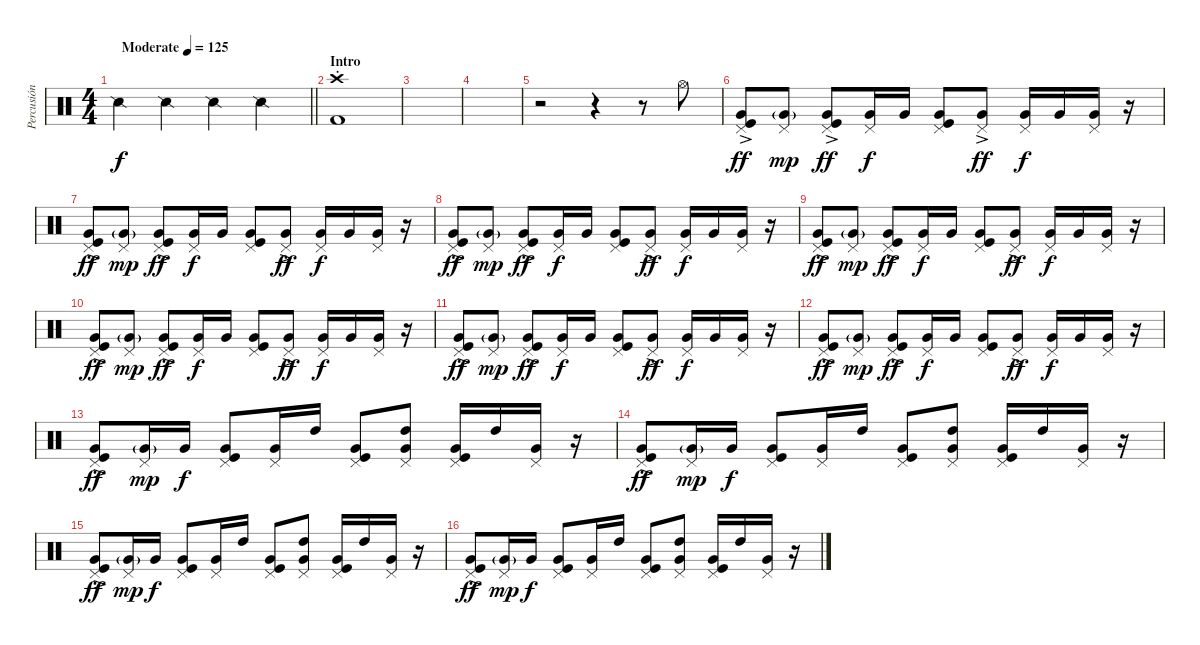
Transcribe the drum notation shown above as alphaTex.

\track ("Percusión" "Percusión") {instrument percussion}
\staff {score}
\articulation defaults
\ts (4 4)
\tempo (125 "Moderate")
\clef neutral
\barLineRight lightlight
\ks c "Snare (side stick) 2".4{dy f} "Snare (side stick) 2".4 "Snare (side stick) 2".4 "Snare (side stick) 2".4
|
\section ("" "Intro")
("Crash high (hit)"{st} "Kick (hit) 2").1 |
|
|
r.2 r.4 r.8 "Hi-Hat (open)".8 |
("Very Low Tom (hit)"{ac} "Kick (hit)" "Pedal Hi-Hat (hit)").8{dy ff} ("Very Low Tom (hit)"{g} "Pedal Hi-Hat (hit)").8{dy mp} ("Very Low Tom (hit)"{ac} "Kick (hit)" "Pedal Hi-Hat (hit)").8{dy ff} ("Very Low Tom (hit)" "Pedal Hi-Hat (hit)").16{dy f} "Very Low Tom (hit)".16 ("Very Low Tom (hit)" "Kick (hit)" "Pedal Hi-Hat (hit)").8 ("Very Low Tom (hit)"{ac} "Pedal Hi-Hat (hit)").8{dy ff} ("Very Low Tom (hit)" "Pedal Hi-Hat (hit)").16{dy f} "Very Low Tom (hit)".16 ("Very Low Tom (hit)" "Pedal Hi-Hat (hit)").16 r.16 |
("Very Low Tom (hit)"{ac} "Kick (hit)" "Pedal Hi-Hat (hit)").8{dy ff} ("Very Low Tom (hit)"{g} "Pedal Hi-Hat (hit)").8{dy mp} ("Very Low Tom (hit)"{ac} "Kick (hit)" "Pedal Hi-Hat (hit)").8{dy ff} ("Very Low Tom (hit)" "Pedal Hi-Hat (hit)").16{dy f} "Very Low Tom (hit)".16 ("Very Low Tom (hit)" "Kick (hit)" "Pedal Hi-Hat (hit)").8 ("Very Low Tom (hit)"{ac} "Pedal Hi-Hat (hit)").8{dy ff} ("Very Low Tom (hit)" "Pedal Hi-Hat (hit)").16{dy f} "Very Low Tom (hit)".16 ("Very Low Tom (hit)" "Pedal Hi-Hat (hit)").16 r.16 |
("Very Low Tom (hit)"{ac} "Kick (hit)" "Pedal Hi-Hat (hit)").8{dy ff} ("Very Low Tom (hit)"{g} "Pedal Hi-Hat (hit)").8{dy mp} ("Very Low Tom (hit)"{ac} "Kick (hit)" "Pedal Hi-Hat (hit)").8{dy ff} ("Very Low Tom (hit)" "Pedal Hi-Hat (hit)").16{dy f} "Very Low Tom (hit)".16 ("Very Low Tom (hit)" "Kick (hit)" "Pedal Hi-Hat (hit)").8 ("Very Low Tom (hit)"{ac} "Pedal Hi-Hat (hit)").8{dy ff} ("Very Low Tom (hit)" "Pedal Hi-Hat (hit)").16{dy f} "Very Low Tom (hit)".16 ("Very Low Tom (hit)" "Pedal Hi-Hat (hit)").16 r.16 |
("Very Low Tom (hit)"{ac} "Kick (hit)" "Pedal Hi-Hat (hit)").8{dy ff} ("Very Low Tom (hit)"{g} "Pedal Hi-Hat (hit)").8{dy mp} ("Very Low Tom (hit)"{ac} "Kick (hit)" "Pedal Hi-Hat (hit)").8{dy ff} ("Very Low Tom (hit)" "Pedal Hi-Hat (hit)").16{dy f} "Very Low Tom (hit)".16 ("Very Low Tom (hit)" "Kick (hit)" "Pedal Hi-Hat (hit)").8 ("Very Low Tom (hit)"{ac} "Pedal Hi-Hat (hit)").8{dy ff} ("Very Low Tom (hit)" "Pedal Hi-Hat (hit)").16{dy f} "Very Low Tom (hit)".16 ("Very Low Tom (hit)" "Pedal Hi-Hat (hit)").16 r.16 |
("Very Low Tom (hit)"{ac} "Kick (hit)" "Pedal Hi-Hat (hit)").8{dy ff} ("Very Low Tom (hit)"{g} "Pedal Hi-Hat (hit)").8{dy mp} ("Very Low Tom (hit)"{ac} "Kick (hit)" "Pedal Hi-Hat (hit)").8{dy ff} ("Very Low Tom (hit)" "Pedal Hi-Hat (hit)").16{dy f} "Very Low Tom (hit)".16 ("Very Low Tom (hit)" "Kick (hit)" "Pedal Hi-Hat (hit)").8 ("Very Low Tom (hit)"{ac} "Pedal Hi-Hat (hit)").8{dy ff} ("Very Low Tom (hit)" "Pedal Hi-Hat (hit)").16{dy f} "Very Low Tom (hit)".16 ("Very Low Tom (hit)" "Pedal Hi-Hat (hit)").16 r.16 |
("Very Low Tom (hit)"{ac} "Kick (hit)" "Pedal Hi-Hat (hit)").8{dy ff} ("Very Low Tom (hit)"{g} "Pedal Hi-Hat (hit)").8{dy mp} ("Very Low Tom (hit)"{ac} "Kick (hit)" "Pedal Hi-Hat (hit)").8{dy ff} ("Very Low Tom (hit)" "Pedal Hi-Hat (hit)").16{dy f} "Very Low Tom (hit)".16 ("Very Low Tom (hit)" "Kick (hit)" "Pedal Hi-Hat (hit)").8 ("Very Low Tom (hit)"{ac} "Pedal Hi-Hat (hit)").8{dy ff} ("Very Low Tom (hit)" "Pedal Hi-Hat (hit)").16{dy f} "Very Low Tom (hit)".16 ("Very Low Tom (hit)" "Pedal Hi-Hat (hit)").16 r.16 |
("Very Low Tom (hit)"{ac} "Kick (hit)" "Pedal Hi-Hat (hit)").8{dy ff} ("Very Low Tom (hit)"{g} "Pedal Hi-Hat (hit)").8{dy mp} ("Very Low Tom (hit)"{ac} "Kick (hit)" "Pedal Hi-Hat (hit)").8{dy ff} ("Very Low Tom (hit)" "Pedal Hi-Hat (hit)").16{dy f} "Very Low Tom (hit)".16 ("Very Low Tom (hit)" "Kick (hit)" "Pedal Hi-Hat (hit)").8 ("Very Low Tom (hit)"{ac} "Pedal Hi-Hat (hit)").8{dy ff} ("Very Low Tom (hit)" "Pedal Hi-Hat (hit)").16{dy f} "Very Low Tom (hit)".16 ("Very Low Tom (hit)" "Pedal Hi-Hat (hit)").16 r.16 |
("Very Low Tom (hit)"{ac} "Pedal Hi-Hat (hit)" "Kick (hit)").8{dy ff} ("Very Low Tom (hit)"{g} "Pedal Hi-Hat (hit)").16{dy mp} "Very Low Tom (hit)".16{dy f} ("Very Low Tom (hit)" "Pedal Hi-Hat (hit)" "Kick (hit)").8 ("Very Low Tom (hit)" "Pedal Hi-Hat (hit)").16 "High Tom (hit)".16 ("Very Low Tom (hit)" "Pedal Hi-Hat (hit)" "Kick (hit)").8 ("Very Low Tom (hit)" "High Tom (hit)" "Pedal Hi-Hat (hit)").8 ("Very Low Tom (hit)" "Pedal Hi-Hat (hit)" "Kick (hit)").16 "High Tom (hit)".16 ("Very Low Tom (hit)" "Pedal Hi-Hat (hit)").16 r.16 |
("Very Low Tom (hit)"{ac} "Pedal Hi-Hat (hit)" "Kick (hit)").8{dy ff} ("Very Low Tom (hit)"{g} "Pedal Hi-Hat (hit)").16{dy mp} "Very Low Tom (hit)".16{dy f} ("Very Low Tom (hit)" "Pedal Hi-Hat (hit)" "Kick (hit)").8 ("Very Low Tom (hit)" "Pedal Hi-Hat (hit)").16 "High Tom (hit)".16 ("Very Low Tom (hit)" "Pedal Hi-Hat (hit)" "Kick (hit)").8 ("Very Low Tom (hit)" "High Tom (hit)" "Pedal Hi-Hat (hit)").8 ("Very Low Tom (hit)" "Pedal Hi-Hat (hit)" "Kick (hit)").16 "High Tom (hit)".16 ("Very Low Tom (hit)" "Pedal Hi-Hat (hit)").16 r.16 |
("Very Low Tom (hit)"{ac} "Pedal Hi-Hat (hit)" "Kick (hit)").8{dy ff} ("Very Low Tom (hit)"{g} "Pedal Hi-Hat (hit)").16{dy mp} "Very Low Tom (hit)".16{dy f} ("Very Low Tom (hit)" "Pedal Hi-Hat (hit)" "Kick (hit)").8 ("Very Low Tom (hit)" "Pedal Hi-Hat (hit)").16 "High Tom (hit)".16 ("Very Low Tom (hit)" "Pedal Hi-Hat (hit)" "Kick (hit)").8 ("Very Low Tom (hit)" "High Tom (hit)" "Pedal Hi-Hat (hit)").8 ("Very Low Tom (hit)" "Pedal Hi-Hat (hit)" "Kick (hit)").16 "High Tom (hit)".16 ("Very Low Tom (hit)" "Pedal Hi-Hat (hit)").16 r.16 |
("Very Low Tom (hit)"{ac} "Pedal Hi-Hat (hit)" "Kick (hit)").8{dy ff} ("Very Low Tom (hit)"{g} "Pedal Hi-Hat (hit)").16{dy mp} "Very Low Tom (hit)".16{dy f} ("Very Low Tom (hit)" "Pedal Hi-Hat (hit)" "Kick (hit)").8 ("Very Low Tom (hit)" "Pedal Hi-Hat (hit)").16 "High Tom (hit)".16 ("Very Low Tom (hit)" "Pedal Hi-Hat (hit)" "Kick (hit)").8 ("Very Low Tom (hit)" "High Tom (hit)" "Pedal Hi-Hat (hit)").8 ("Very Low Tom (hit)" "Pedal Hi-Hat (hit)" "Kick (hit)").16 "High Tom (hit)".16 ("Very Low Tom (hit)" "Pedal Hi-Hat (hit)").16 r.16
